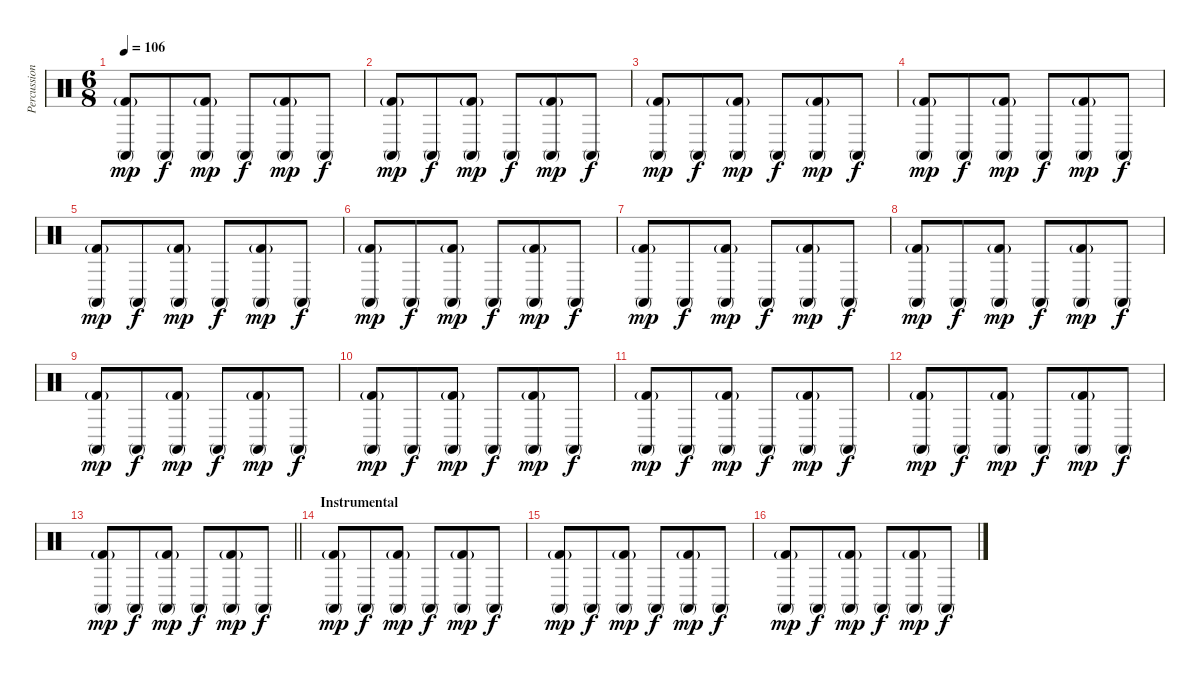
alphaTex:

\track ("Percussion" "Percussion") {instrument percussion}
\staff {score}
\articulation defaults
\ts (6 8)
\tempo 106
\clef neutral
\ks c
("Conga high (mute)" "Kick (hit) 2"{g}).8{dy mp} "Conga high (mute)".8{dy f} ("Conga high (mute)" "Kick (hit) 2"{g}).8{dy mp} "Conga high (mute)".8{dy f} ("Conga high (mute)" "Kick (hit) 2"{g}).8{dy mp} "Conga high (mute)".8{dy f} |
("Conga high (mute)" "Kick (hit) 2"{g}).8{dy mp} "Conga high (mute)".8{dy f} ("Conga high (mute)" "Kick (hit) 2"{g}).8{dy mp} "Conga high (mute)".8{dy f} ("Conga high (mute)" "Kick (hit) 2"{g}).8{dy mp} "Conga high (mute)".8{dy f} |
("Conga high (mute)" "Kick (hit) 2"{g}).8{dy mp} "Conga high (mute)".8{dy f} ("Conga high (mute)" "Kick (hit) 2"{g}).8{dy mp} "Conga high (mute)".8{dy f} ("Conga high (mute)" "Kick (hit) 2"{g}).8{dy mp} "Conga high (mute)".8{dy f} |
("Conga high (mute)" "Kick (hit) 2"{g}).8{dy mp} "Conga high (mute)".8{dy f} ("Conga high (mute)" "Kick (hit) 2"{g}).8{dy mp} "Conga high (mute)".8{dy f} ("Conga high (mute)" "Kick (hit) 2"{g}).8{dy mp} "Conga high (mute)".8{dy f} |
("Conga high (mute)" "Kick (hit) 2"{g}).8{dy mp} "Conga high (mute)".8{dy f} ("Conga high (mute)" "Kick (hit) 2"{g}).8{dy mp} "Conga high (mute)".8{dy f} ("Conga high (mute)" "Kick (hit) 2"{g}).8{dy mp} "Conga high (mute)".8{dy f} |
("Conga high (mute)" "Kick (hit) 2"{g}).8{dy mp} "Conga high (mute)".8{dy f} ("Conga high (mute)" "Kick (hit) 2"{g}).8{dy mp} "Conga high (mute)".8{dy f} ("Conga high (mute)" "Kick (hit) 2"{g}).8{dy mp} "Conga high (mute)".8{dy f} |
("Conga high (mute)" "Kick (hit) 2"{g}).8{dy mp} "Conga high (mute)".8{dy f} ("Conga high (mute)" "Kick (hit) 2"{g}).8{dy mp} "Conga high (mute)".8{dy f} ("Conga high (mute)" "Kick (hit) 2"{g}).8{dy mp} "Conga high (mute)".8{dy f} |
("Conga high (mute)" "Kick (hit) 2"{g}).8{dy mp} "Conga high (mute)".8{dy f} ("Conga high (mute)" "Kick (hit) 2"{g}).8{dy mp} "Conga high (mute)".8{dy f} ("Conga high (mute)" "Kick (hit) 2"{g}).8{dy mp} "Conga high (mute)".8{dy f} |
("Conga high (mute)" "Kick (hit) 2"{g}).8{dy mp} "Conga high (mute)".8{dy f} ("Conga high (mute)" "Kick (hit) 2"{g}).8{dy mp} "Conga high (mute)".8{dy f} ("Conga high (mute)" "Kick (hit) 2"{g}).8{dy mp} "Conga high (mute)".8{dy f} |
("Conga high (mute)" "Kick (hit) 2"{g}).8{dy mp} "Conga high (mute)".8{dy f} ("Conga high (mute)" "Kick (hit) 2"{g}).8{dy mp} "Conga high (mute)".8{dy f} ("Conga high (mute)" "Kick (hit) 2"{g}).8{dy mp} "Conga high (mute)".8{dy f} |
("Conga high (mute)" "Kick (hit) 2"{g}).8{dy mp} "Conga high (mute)".8{dy f} ("Conga high (mute)" "Kick (hit) 2"{g}).8{dy mp} "Conga high (mute)".8{dy f} ("Conga high (mute)" "Kick (hit) 2"{g}).8{dy mp} "Conga high (mute)".8{dy f} |
("Conga high (mute)" "Kick (hit) 2"{g}).8{dy mp} "Conga high (mute)".8{dy f} ("Conga high (mute)" "Kick (hit) 2"{g}).8{dy mp} "Conga high (mute)".8{dy f} ("Conga high (mute)" "Kick (hit) 2"{g}).8{dy mp} "Conga high (mute)".8{dy f} |
\barLineRight lightlight
("Conga high (mute)" "Kick (hit) 2"{g}).8{dy mp} "Conga high (mute)".8{dy f} ("Conga high (mute)" "Kick (hit) 2"{g}).8{dy mp} "Conga high (mute)".8{dy f} ("Conga high (mute)" "Kick (hit) 2"{g}).8{dy mp} "Conga high (mute)".8{dy f} |
\section ("" "Instrumental")
("Conga high (mute)" "Kick (hit) 2"{g}).8{dy mp} "Conga high (mute)".8{dy f} ("Conga high (mute)" "Kick (hit) 2"{g}).8{dy mp} "Conga high (mute)".8{dy f} ("Conga high (mute)" "Kick (hit) 2"{g}).8{dy mp} "Conga high (mute)".8{dy f} |
("Conga high (mute)" "Kick (hit) 2"{g}).8{dy mp} "Conga high (mute)".8{dy f} ("Conga high (mute)" "Kick (hit) 2"{g}).8{dy mp} "Conga high (mute)".8{dy f} ("Conga high (mute)" "Kick (hit) 2"{g}).8{dy mp} "Conga high (mute)".8{dy f} |
("Conga high (mute)" "Kick (hit) 2"{g}).8{dy mp} "Conga high (mute)".8{dy f} ("Conga high (mute)" "Kick (hit) 2"{g}).8{dy mp} "Conga high (mute)".8{dy f} ("Conga high (mute)" "Kick (hit) 2"{g}).8{dy mp} "Conga high (mute)".8{dy f}
